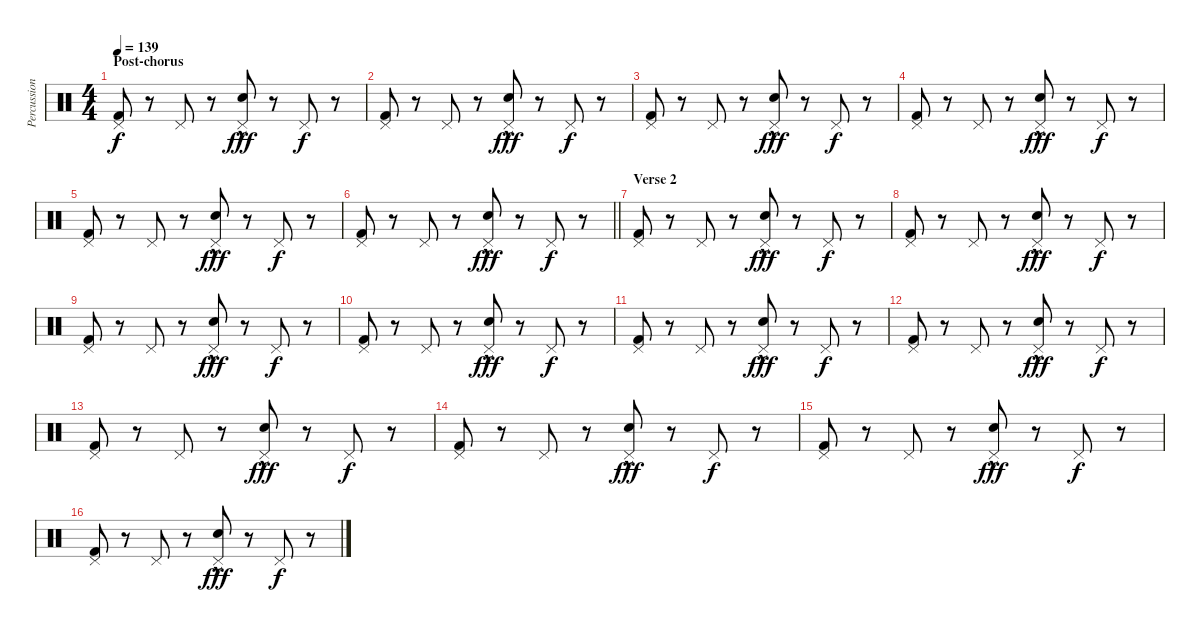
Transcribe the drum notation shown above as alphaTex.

\track ("Percussion" "Percussion") {instrument percussion}
\staff {score}
\articulation defaults
\ts (4 4)
\section ("" "Post-chorus")
\tempo 139
\clef neutral
\ks c
("Kick (hit) 2" "Pedal Hi-Hat (hit)").8{dy f} r.8 "Pedal Hi-Hat (hit)".8 r.8 ("Electric Snare (hit)"{hac} "Pedal Hi-Hat (hit)").8{dy fff} r.8 "Pedal Hi-Hat (hit)".8{dy f} r.8 |
("Kick (hit) 2" "Pedal Hi-Hat (hit)").8 r.8 "Pedal Hi-Hat (hit)".8 r.8 ("Electric Snare (hit)"{hac} "Pedal Hi-Hat (hit)").8{dy fff} r.8 "Pedal Hi-Hat (hit)".8{dy f} r.8 |
("Kick (hit) 2" "Pedal Hi-Hat (hit)").8 r.8 "Pedal Hi-Hat (hit)".8 r.8 ("Electric Snare (hit)"{hac} "Pedal Hi-Hat (hit)").8{dy fff} r.8 "Pedal Hi-Hat (hit)".8{dy f} r.8 |
("Kick (hit) 2" "Pedal Hi-Hat (hit)").8 r.8 "Pedal Hi-Hat (hit)".8 r.8 ("Electric Snare (hit)"{hac} "Pedal Hi-Hat (hit)").8{dy fff} r.8 "Pedal Hi-Hat (hit)".8{dy f} r.8 |
("Kick (hit) 2" "Pedal Hi-Hat (hit)").8 r.8 "Pedal Hi-Hat (hit)".8 r.8 ("Electric Snare (hit)"{hac} "Pedal Hi-Hat (hit)").8{dy fff} r.8 "Pedal Hi-Hat (hit)".8{dy f} r.8 |
\barLineRight lightlight
("Kick (hit) 2" "Pedal Hi-Hat (hit)").8 r.8 "Pedal Hi-Hat (hit)".8 r.8 ("Electric Snare (hit)"{hac} "Pedal Hi-Hat (hit)").8{dy fff} r.8 "Pedal Hi-Hat (hit)".8{dy f} r.8 |
\section ("" "Verse 2")
("Kick (hit) 2" "Pedal Hi-Hat (hit)").8 r.8 "Pedal Hi-Hat (hit)".8 r.8 ("Electric Snare (hit)"{hac} "Pedal Hi-Hat (hit)").8{dy fff} r.8 "Pedal Hi-Hat (hit)".8{dy f} r.8 |
("Kick (hit) 2" "Pedal Hi-Hat (hit)").8 r.8 "Pedal Hi-Hat (hit)".8 r.8 ("Electric Snare (hit)"{hac} "Pedal Hi-Hat (hit)").8{dy fff} r.8 "Pedal Hi-Hat (hit)".8{dy f} r.8 |
("Kick (hit) 2" "Pedal Hi-Hat (hit)").8 r.8 "Pedal Hi-Hat (hit)".8 r.8 ("Electric Snare (hit)"{hac} "Pedal Hi-Hat (hit)").8{dy fff} r.8 "Pedal Hi-Hat (hit)".8{dy f} r.8 |
("Kick (hit) 2" "Pedal Hi-Hat (hit)").8 r.8 "Pedal Hi-Hat (hit)".8 r.8 ("Electric Snare (hit)"{hac} "Pedal Hi-Hat (hit)").8{dy fff} r.8 "Pedal Hi-Hat (hit)".8{dy f} r.8 |
("Kick (hit) 2" "Pedal Hi-Hat (hit)").8 r.8 "Pedal Hi-Hat (hit)".8 r.8 ("Electric Snare (hit)"{hac} "Pedal Hi-Hat (hit)").8{dy fff} r.8 "Pedal Hi-Hat (hit)".8{dy f} r.8 |
("Kick (hit) 2" "Pedal Hi-Hat (hit)").8 r.8 "Pedal Hi-Hat (hit)".8 r.8 ("Electric Snare (hit)"{hac} "Pedal Hi-Hat (hit)").8{dy fff} r.8 "Pedal Hi-Hat (hit)".8{dy f} r.8 |
("Kick (hit) 2" "Pedal Hi-Hat (hit)").8 r.8 "Pedal Hi-Hat (hit)".8 r.8 ("Electric Snare (hit)"{hac} "Pedal Hi-Hat (hit)").8{dy fff} r.8 "Pedal Hi-Hat (hit)".8{dy f} r.8 |
("Kick (hit) 2" "Pedal Hi-Hat (hit)").8 r.8 "Pedal Hi-Hat (hit)".8 r.8 ("Electric Snare (hit)"{hac} "Pedal Hi-Hat (hit)").8{dy fff} r.8 "Pedal Hi-Hat (hit)".8{dy f} r.8 |
("Kick (hit) 2" "Pedal Hi-Hat (hit)").8 r.8 "Pedal Hi-Hat (hit)".8 r.8 ("Electric Snare (hit)"{hac} "Pedal Hi-Hat (hit)").8{dy fff} r.8 "Pedal Hi-Hat (hit)".8{dy f} r.8 |
("Kick (hit) 2" "Pedal Hi-Hat (hit)").8 r.8 "Pedal Hi-Hat (hit)".8 r.8 ("Electric Snare (hit)"{hac} "Pedal Hi-Hat (hit)").8{dy fff} r.8 "Pedal Hi-Hat (hit)".8{dy f} r.8
